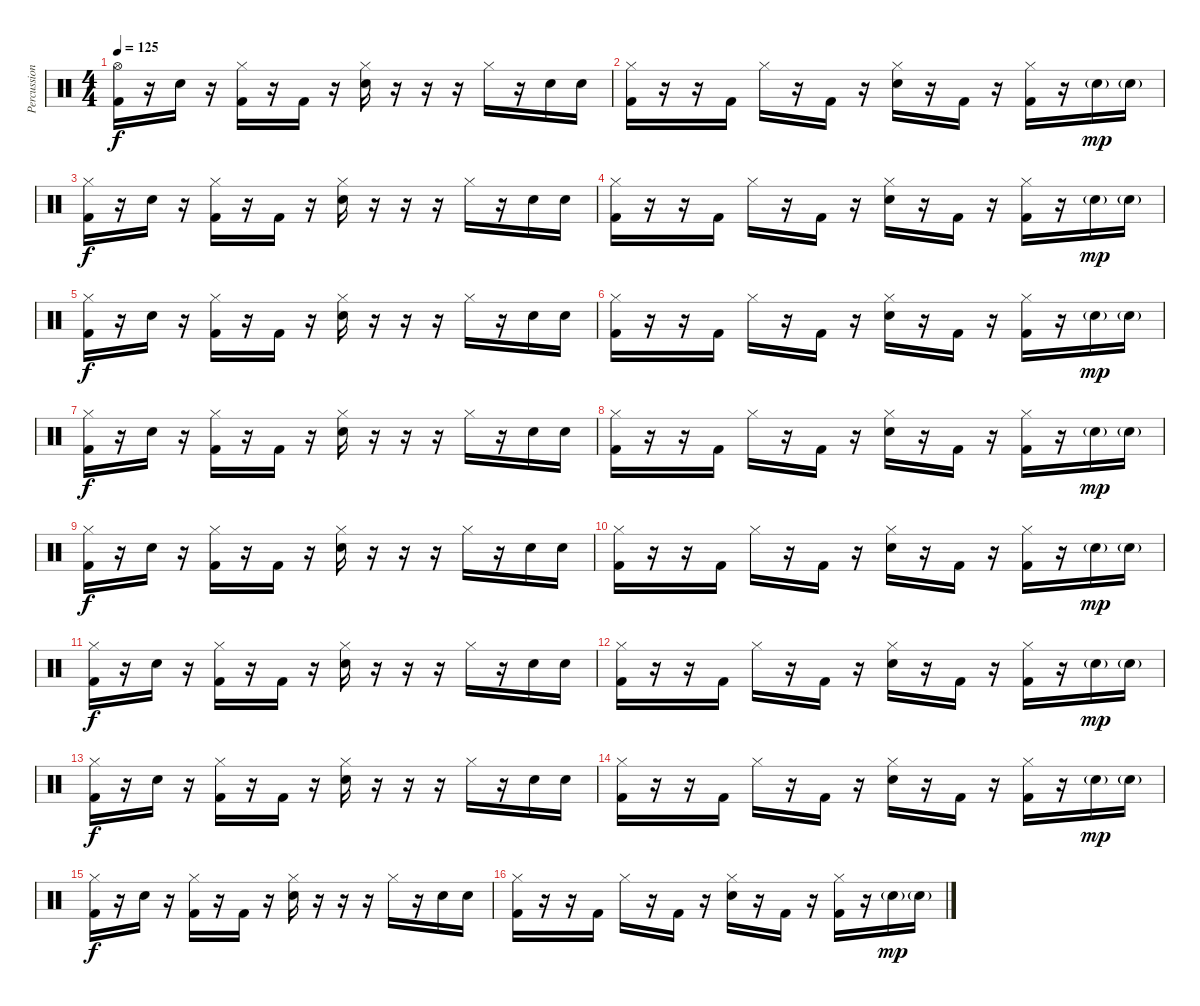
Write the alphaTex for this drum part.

\track ("Percussion" "Percussion") {instrument percussion}
\staff {score}
\articulation defaults
\ts (4 4)
\tempo 125
\clef neutral
\ks c
("Hi-Hat (open)" "Kick (hit) 2").16{dy f} r.16 "Electric Snare (hit)".16 r.16 ("Hi-Hat (closed)" "Kick (hit) 2").16 r.16 "Kick (hit) 2".16 r.16 ("Hi-Hat (closed)" "Electric Snare (hit)").16 r.16 r.16 r.16 "Hi-Hat (closed)".16 r.16 "Electric Snare (hit)".16 "Electric Snare (hit)".16 |
("Hi-Hat (closed)" "Kick (hit) 2").16 r.16 r.16 "Kick (hit) 2".16 "Hi-Hat (closed)".16 r.16 "Kick (hit) 2".16 r.16 ("Hi-Hat (closed)" "Electric Snare (hit)").16 r.16 "Kick (hit) 2".16 r.16 ("Hi-Hat (closed)" "Kick (hit) 2").16 r.16 "Electric Snare (hit)"{g}.16{dy mp} "Electric Snare (hit)"{g}.16 |
("Hi-Hat (closed)" "Kick (hit) 2").16{dy f} r.16 "Electric Snare (hit)".16 r.16 ("Hi-Hat (closed)" "Kick (hit) 2").16 r.16 "Kick (hit) 2".16 r.16 ("Hi-Hat (closed)" "Electric Snare (hit)").16 r.16 r.16 r.16 "Hi-Hat (closed)".16 r.16 "Electric Snare (hit)".16 "Electric Snare (hit)".16 |
("Hi-Hat (closed)" "Kick (hit) 2").16 r.16 r.16 "Kick (hit) 2".16 "Hi-Hat (closed)".16 r.16 "Kick (hit) 2".16 r.16 ("Hi-Hat (closed)" "Electric Snare (hit)").16 r.16 "Kick (hit) 2".16 r.16 ("Hi-Hat (closed)" "Kick (hit) 2").16 r.16 "Electric Snare (hit)"{g}.16{dy mp} "Electric Snare (hit)"{g}.16 |
("Hi-Hat (closed)" "Kick (hit) 2").16{dy f} r.16 "Electric Snare (hit)".16 r.16 ("Hi-Hat (closed)" "Kick (hit) 2").16 r.16 "Kick (hit) 2".16 r.16 ("Hi-Hat (closed)" "Electric Snare (hit)").16 r.16 r.16 r.16 "Hi-Hat (closed)".16 r.16 "Electric Snare (hit)".16 "Electric Snare (hit)".16 |
("Hi-Hat (closed)" "Kick (hit) 2").16 r.16 r.16 "Kick (hit) 2".16 "Hi-Hat (closed)".16 r.16 "Kick (hit) 2".16 r.16 ("Hi-Hat (closed)" "Electric Snare (hit)").16 r.16 "Kick (hit) 2".16 r.16 ("Hi-Hat (closed)" "Kick (hit) 2").16 r.16 "Electric Snare (hit)"{g}.16{dy mp} "Electric Snare (hit)"{g}.16 |
("Hi-Hat (closed)" "Kick (hit) 2").16{dy f} r.16 "Electric Snare (hit)".16 r.16 ("Hi-Hat (closed)" "Kick (hit) 2").16 r.16 "Kick (hit) 2".16 r.16 ("Hi-Hat (closed)" "Electric Snare (hit)").16 r.16 r.16 r.16 "Hi-Hat (closed)".16 r.16 "Electric Snare (hit)".16 "Electric Snare (hit)".16 |
("Hi-Hat (closed)" "Kick (hit) 2").16 r.16 r.16 "Kick (hit) 2".16 "Hi-Hat (closed)".16 r.16 "Kick (hit) 2".16 r.16 ("Hi-Hat (closed)" "Electric Snare (hit)").16 r.16 "Kick (hit) 2".16 r.16 ("Hi-Hat (closed)" "Kick (hit) 2").16 r.16 "Electric Snare (hit)"{g}.16{dy mp} "Electric Snare (hit)"{g}.16 |
("Hi-Hat (closed)" "Kick (hit) 2").16{dy f} r.16 "Electric Snare (hit)".16 r.16 ("Hi-Hat (closed)" "Kick (hit) 2").16 r.16 "Kick (hit) 2".16 r.16 ("Hi-Hat (closed)" "Electric Snare (hit)").16 r.16 r.16 r.16 "Hi-Hat (closed)".16 r.16 "Electric Snare (hit)".16 "Electric Snare (hit)".16 |
("Hi-Hat (closed)" "Kick (hit) 2").16 r.16 r.16 "Kick (hit) 2".16 "Hi-Hat (closed)".16 r.16 "Kick (hit) 2".16 r.16 ("Hi-Hat (closed)" "Electric Snare (hit)").16 r.16 "Kick (hit) 2".16 r.16 ("Hi-Hat (closed)" "Kick (hit) 2").16 r.16 "Electric Snare (hit)"{g}.16{dy mp} "Electric Snare (hit)"{g}.16 |
("Hi-Hat (closed)" "Kick (hit) 2").16{dy f} r.16 "Electric Snare (hit)".16 r.16 ("Hi-Hat (closed)" "Kick (hit) 2").16 r.16 "Kick (hit) 2".16 r.16 ("Hi-Hat (closed)" "Electric Snare (hit)").16 r.16 r.16 r.16 "Hi-Hat (closed)".16 r.16 "Electric Snare (hit)".16 "Electric Snare (hit)".16 |
("Hi-Hat (closed)" "Kick (hit) 2").16 r.16 r.16 "Kick (hit) 2".16 "Hi-Hat (closed)".16 r.16 "Kick (hit) 2".16 r.16 ("Hi-Hat (closed)" "Electric Snare (hit)").16 r.16 "Kick (hit) 2".16 r.16 ("Hi-Hat (closed)" "Kick (hit) 2").16 r.16 "Electric Snare (hit)"{g}.16{dy mp} "Electric Snare (hit)"{g}.16 |
("Hi-Hat (closed)" "Kick (hit) 2").16{dy f} r.16 "Electric Snare (hit)".16 r.16 ("Hi-Hat (closed)" "Kick (hit) 2").16 r.16 "Kick (hit) 2".16 r.16 ("Hi-Hat (closed)" "Electric Snare (hit)").16 r.16 r.16 r.16 "Hi-Hat (closed)".16 r.16 "Electric Snare (hit)".16 "Electric Snare (hit)".16 |
("Hi-Hat (closed)" "Kick (hit) 2").16 r.16 r.16 "Kick (hit) 2".16 "Hi-Hat (closed)".16 r.16 "Kick (hit) 2".16 r.16 ("Hi-Hat (closed)" "Electric Snare (hit)").16 r.16 "Kick (hit) 2".16 r.16 ("Hi-Hat (closed)" "Kick (hit) 2").16 r.16 "Electric Snare (hit)"{g}.16{dy mp} "Electric Snare (hit)"{g}.16 |
("Hi-Hat (closed)" "Kick (hit) 2").16{dy f} r.16 "Electric Snare (hit)".16 r.16 ("Hi-Hat (closed)" "Kick (hit) 2").16 r.16 "Kick (hit) 2".16 r.16 ("Hi-Hat (closed)" "Electric Snare (hit)").16 r.16 r.16 r.16 "Hi-Hat (closed)".16 r.16 "Electric Snare (hit)".16 "Electric Snare (hit)".16 |
("Hi-Hat (closed)" "Kick (hit) 2").16 r.16 r.16 "Kick (hit) 2".16 "Hi-Hat (closed)".16 r.16 "Kick (hit) 2".16 r.16 ("Hi-Hat (closed)" "Electric Snare (hit)").16 r.16 "Kick (hit) 2".16 r.16 ("Hi-Hat (closed)" "Kick (hit) 2").16 r.16 "Electric Snare (hit)"{g}.16{dy mp} "Electric Snare (hit)"{g}.16
